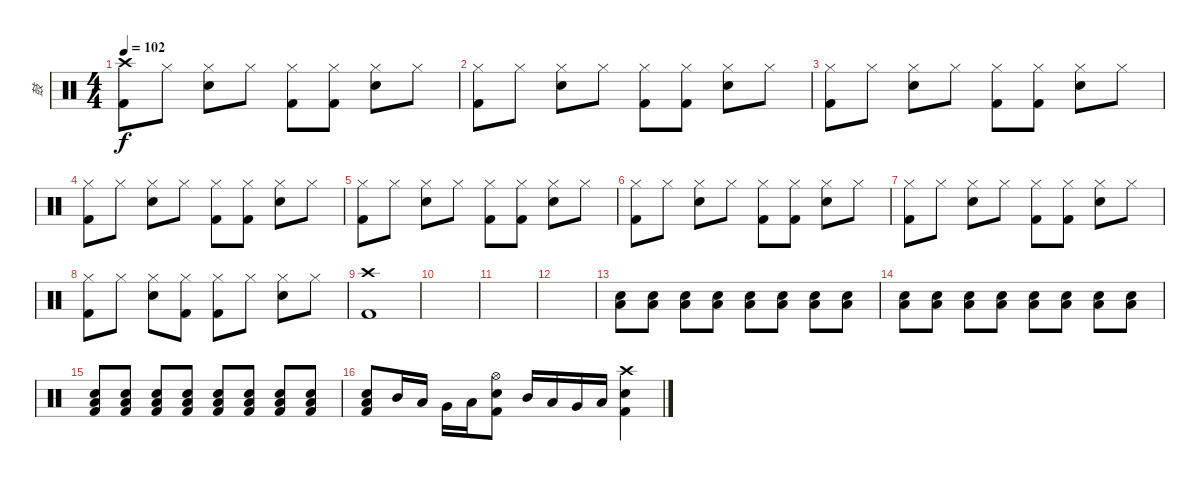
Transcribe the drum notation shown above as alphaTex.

\track ("鼓" "鼓") {instrument percussion}
\staff {score}
\articulation defaults
\ts (4 4)
\tempo 102
\clef neutral
\ks c
("Crash high (hit)" "Kick (hit) 2").8{dy f} "Hi-Hat (closed)".8 ("Hi-Hat (closed)" "Electric Snare (hit)").8 "Hi-Hat (closed)".8 ("Hi-Hat (closed)" "Kick (hit) 2").8 ("Hi-Hat (closed)" "Kick (hit) 2").8 ("Hi-Hat (closed)" "Electric Snare (hit)").8 "Hi-Hat (closed)".8 |
("Hi-Hat (closed)" "Kick (hit) 2").8 "Hi-Hat (closed)".8 ("Hi-Hat (closed)" "Electric Snare (hit)").8 "Hi-Hat (closed)".8 ("Hi-Hat (closed)" "Kick (hit) 2").8 ("Hi-Hat (closed)" "Kick (hit) 2").8 ("Hi-Hat (closed)" "Electric Snare (hit)").8 "Hi-Hat (closed)".8 |
("Hi-Hat (closed)" "Kick (hit) 2").8 "Hi-Hat (closed)".8 ("Hi-Hat (closed)" "Electric Snare (hit)").8 "Hi-Hat (closed)".8 ("Hi-Hat (closed)" "Kick (hit) 2").8 ("Hi-Hat (closed)" "Kick (hit) 2").8 ("Hi-Hat (closed)" "Electric Snare (hit)").8 "Hi-Hat (closed)".8 |
("Hi-Hat (closed)" "Kick (hit) 2").8 "Hi-Hat (closed)".8 ("Hi-Hat (closed)" "Electric Snare (hit)").8 "Hi-Hat (closed)".8 ("Hi-Hat (closed)" "Kick (hit) 2").8 ("Hi-Hat (closed)" "Kick (hit) 2").8 ("Hi-Hat (closed)" "Electric Snare (hit)").8 "Hi-Hat (closed)".8 |
("Hi-Hat (closed)" "Kick (hit) 2").8 "Hi-Hat (closed)".8 ("Hi-Hat (closed)" "Electric Snare (hit)").8 "Hi-Hat (closed)".8 ("Hi-Hat (closed)" "Kick (hit) 2").8 ("Hi-Hat (closed)" "Kick (hit) 2").8 ("Hi-Hat (closed)" "Electric Snare (hit)").8 "Hi-Hat (closed)".8 |
("Hi-Hat (closed)" "Kick (hit) 2").8 "Hi-Hat (closed)".8 ("Hi-Hat (closed)" "Electric Snare (hit)").8 "Hi-Hat (closed)".8 ("Hi-Hat (closed)" "Kick (hit) 2").8 ("Hi-Hat (closed)" "Kick (hit) 2").8 ("Hi-Hat (closed)" "Electric Snare (hit)").8 "Hi-Hat (closed)".8 |
("Hi-Hat (closed)" "Kick (hit) 2").8 "Hi-Hat (closed)".8 ("Hi-Hat (closed)" "Electric Snare (hit)").8 "Hi-Hat (closed)".8 ("Hi-Hat (closed)" "Kick (hit) 2").8 ("Hi-Hat (closed)" "Kick (hit) 2").8 ("Hi-Hat (closed)" "Electric Snare (hit)").8 "Hi-Hat (closed)".8 |
("Hi-Hat (closed)" "Kick (hit) 2").8 "Hi-Hat (closed)".8 ("Hi-Hat (closed)" "Electric Snare (hit)").8 ("Hi-Hat (closed)" "Kick (hit) 2").8 ("Hi-Hat (closed)" "Kick (hit) 2").8 "Hi-Hat (closed)".8 ("Hi-Hat (closed)" "Electric Snare (hit)").8 "Hi-Hat (closed)".8 |
("Crash high (hit)" "Kick (hit) 2").1 |
|
|
|
("Electric Snare (hit)" "Low Floor Tom (hit)").8{volume 3} ("Electric Snare (hit)" "Low Floor Tom (hit)").8 ("Electric Snare (hit)" "Low Floor Tom (hit)").8{volume 6} ("Electric Snare (hit)" "Low Floor Tom (hit)").8 ("Electric Snare (hit)" "Low Floor Tom (hit)").8{volume 8} ("Electric Snare (hit)" "Low Floor Tom (hit)").8 ("Electric Snare (hit)" "Low Floor Tom (hit)").8{volume 11} ("Electric Snare (hit)" "Low Floor Tom (hit)").8 |
("Electric Snare (hit)" "Low Floor Tom (hit)").8{volume 12} ("Electric Snare (hit)" "Low Floor Tom (hit)").8 ("Electric Snare (hit)" "Low Floor Tom (hit)").8{volume 14} ("Electric Snare (hit)" "Low Floor Tom (hit)").8 ("Electric Snare (hit)" "Low Floor Tom (hit)").8{volume 16} ("Electric Snare (hit)" "Low Floor Tom (hit)").8 ("Electric Snare (hit)" "Low Floor Tom (hit)").8 ("Electric Snare (hit)" "Low Floor Tom (hit)").8 |
("Electric Snare (hit)" "Low Floor Tom (hit)" "Kick (hit) 2").8 ("Electric Snare (hit)" "Low Floor Tom (hit)" "Kick (hit) 2").8 ("Electric Snare (hit)" "Low Floor Tom (hit)" "Kick (hit) 2").8 ("Electric Snare (hit)" "Low Floor Tom (hit)" "Kick (hit) 2").8 ("Electric Snare (hit)" "Low Floor Tom (hit)" "Kick (hit) 2").8 ("Electric Snare (hit)" "Low Floor Tom (hit)" "Kick (hit) 2").8 ("Electric Snare (hit)" "Low Floor Tom (hit)" "Kick (hit) 2").8 ("Electric Snare (hit)" "Low Floor Tom (hit)" "Kick (hit) 2").8 |
("Electric Snare (hit)" "Low Floor Tom (hit)" "Kick (hit) 2").8 "Mid Tom (hit)".16 "Low Tom (hit)".16 "Very Low Tom (hit)".16 "Low Floor Tom (hit)".16 ("Hi-Hat (open)" "Electric Snare (hit)" "Kick (hit) 2").8 "Mid Tom (hit)".16 "Low Tom (hit)".16 "Very Low Tom (hit)".16 "Low Floor Tom (hit)".16 ("Crash high (hit)" "Electric Snare (hit)" "Kick (hit) 2").4
